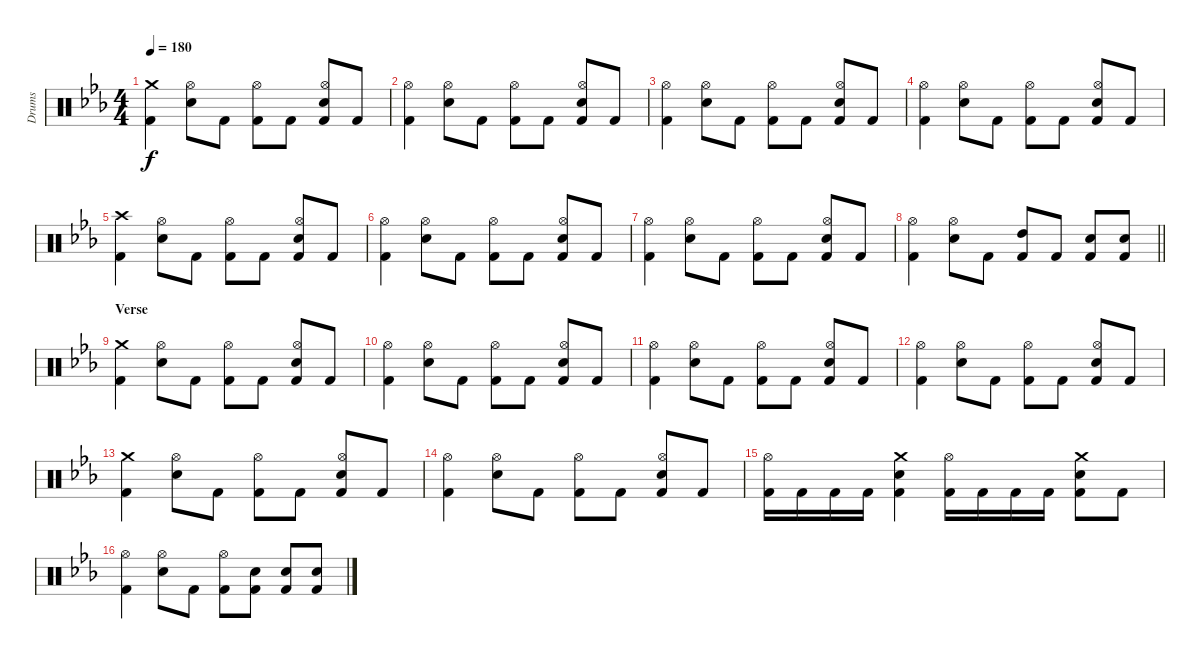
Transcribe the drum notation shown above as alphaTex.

\track ("Drums" "Drums") {instrument percussion}
\staff {score}
\articulation defaults
\ts (4 4)
\tempo 180
\clef neutral
\ks eb
("Crash medium (hit)" "Kick (hit) 2").4{dy f} ("Hi-Hat (open)" "Snare (hit) 2").8 "Kick (hit) 2".8 ("Hi-Hat (open)" "Kick (hit) 2").8 "Kick (hit) 2".8 ("Hi-Hat (open)" "Snare (hit) 2" "Kick (hit) 2").8 "Kick (hit) 2".8 |
("Hi-Hat (open)" "Kick (hit) 2").4 ("Hi-Hat (open)" "Snare (hit) 2").8 "Kick (hit) 2".8 ("Hi-Hat (open)" "Kick (hit) 2").8 "Kick (hit) 2".8 ("Hi-Hat (open)" "Snare (hit) 2" "Kick (hit) 2").8 "Kick (hit) 2".8 |
("Hi-Hat (open)" "Kick (hit) 2").4 ("Hi-Hat (open)" "Snare (hit) 2").8 "Kick (hit) 2".8 ("Hi-Hat (open)" "Kick (hit) 2").8 "Kick (hit) 2".8 ("Hi-Hat (open)" "Snare (hit) 2" "Kick (hit) 2").8 "Kick (hit) 2".8 |
("Hi-Hat (open)" "Kick (hit) 2").4 ("Hi-Hat (open)" "Snare (hit) 2").8 "Kick (hit) 2".8 ("Hi-Hat (open)" "Kick (hit) 2").8 "Kick (hit) 2".8 ("Hi-Hat (open)" "Snare (hit) 2" "Kick (hit) 2").8 "Kick (hit) 2".8 |
("Crash high (hit)" "Kick (hit) 2").4 ("Hi-Hat (open)" "Snare (hit) 2").8 "Kick (hit) 2".8 ("Hi-Hat (open)" "Kick (hit) 2").8 "Kick (hit) 2".8 ("Hi-Hat (open)" "Snare (hit) 2" "Kick (hit) 2").8 "Kick (hit) 2".8 |
("Hi-Hat (open)" "Kick (hit) 2").4 ("Hi-Hat (open)" "Snare (hit) 2").8 "Kick (hit) 2".8 ("Hi-Hat (open)" "Kick (hit) 2").8 "Kick (hit) 2".8 ("Hi-Hat (open)" "Snare (hit) 2" "Kick (hit) 2").8 "Kick (hit) 2".8 |
("Hi-Hat (open)" "Kick (hit) 2").4 ("Hi-Hat (open)" "Snare (hit) 2").8 "Kick (hit) 2".8 ("Hi-Hat (open)" "Kick (hit) 2").8 "Kick (hit) 2".8 ("Hi-Hat (open)" "Snare (hit) 2" "Kick (hit) 2").8 "Kick (hit) 2".8 |
\barLineRight lightlight
("Hi-Hat (open)" "Kick (hit) 2").4 ("Hi-Hat (open)" "Snare (hit) 2").8 "Kick (hit) 2".8 ("High Tom (hit)" "Kick (hit) 2").8 "Kick (hit) 2".8 ("Snare (hit) 2" "Kick (hit) 2").8 ("Snare (hit) 2" "Kick (hit) 2").8 |
\section ("" "Verse")
("Crash medium (hit)" "Kick (hit) 2").4 ("Hi-Hat (open)" "Snare (hit) 2").8 "Kick (hit) 2".8 ("Hi-Hat (open)" "Kick (hit) 2").8 "Kick (hit) 2".8 ("Hi-Hat (open)" "Snare (hit) 2" "Kick (hit) 2").8 "Kick (hit) 2".8 |
("Hi-Hat (open)" "Kick (hit) 2").4 ("Hi-Hat (open)" "Snare (hit) 2").8 "Kick (hit) 2".8 ("Hi-Hat (open)" "Kick (hit) 2").8 "Kick (hit) 2".8 ("Hi-Hat (open)" "Snare (hit) 2" "Kick (hit) 2").8 "Kick (hit) 2".8 |
("Hi-Hat (open)" "Kick (hit) 2").4 ("Hi-Hat (open)" "Snare (hit) 2").8 "Kick (hit) 2".8 ("Hi-Hat (open)" "Kick (hit) 2").8 "Kick (hit) 2".8 ("Hi-Hat (open)" "Snare (hit) 2" "Kick (hit) 2").8 "Kick (hit) 2".8 |
("Hi-Hat (open)" "Kick (hit) 2").4 ("Hi-Hat (open)" "Snare (hit) 2").8 "Kick (hit) 2".8 ("Hi-Hat (open)" "Kick (hit) 2").8 "Kick (hit) 2".8 ("Hi-Hat (open)" "Snare (hit) 2" "Kick (hit) 2").8 "Kick (hit) 2".8 |
("Crash medium (hit)" "Kick (hit) 2").4 ("Hi-Hat (open)" "Snare (hit) 2").8 "Kick (hit) 2".8 ("Hi-Hat (open)" "Kick (hit) 2").8 "Kick (hit) 2".8 ("Hi-Hat (open)" "Snare (hit) 2" "Kick (hit) 2").8 "Kick (hit) 2".8 |
("Hi-Hat (open)" "Kick (hit) 2").4 ("Hi-Hat (open)" "Snare (hit) 2").8 "Kick (hit) 2".8 ("Hi-Hat (open)" "Kick (hit) 2").8 "Kick (hit) 2".8 ("Hi-Hat (open)" "Snare (hit) 2" "Kick (hit) 2").8 "Kick (hit) 2".8 |
("Hi-Hat (open)" "Kick (hit) 2").16 "Kick (hit) 2".16 "Kick (hit) 2".16 "Kick (hit) 2".16 ("Crash medium (hit)" "Snare (hit) 2" "Kick (hit) 2").4 ("Hi-Hat (open)" "Kick (hit) 2").16 "Kick (hit) 2".16 "Kick (hit) 2".16 "Kick (hit) 2".16 ("Crash medium (hit)" "Snare (hit) 2" "Kick (hit) 2").8 "Kick (hit) 2".8 |
("Hi-Hat (open)" "Kick (hit) 2").4 ("Hi-Hat (open)" "Snare (hit) 2").8 "Kick (hit) 2".8 ("Hi-Hat (open)" "Kick (hit) 2").8 ("Snare (hit) 2" "Kick (hit) 2").8 ("Snare (hit) 2" "Kick (hit) 2").8 ("Snare (hit) 2" "Kick (hit) 2").8
